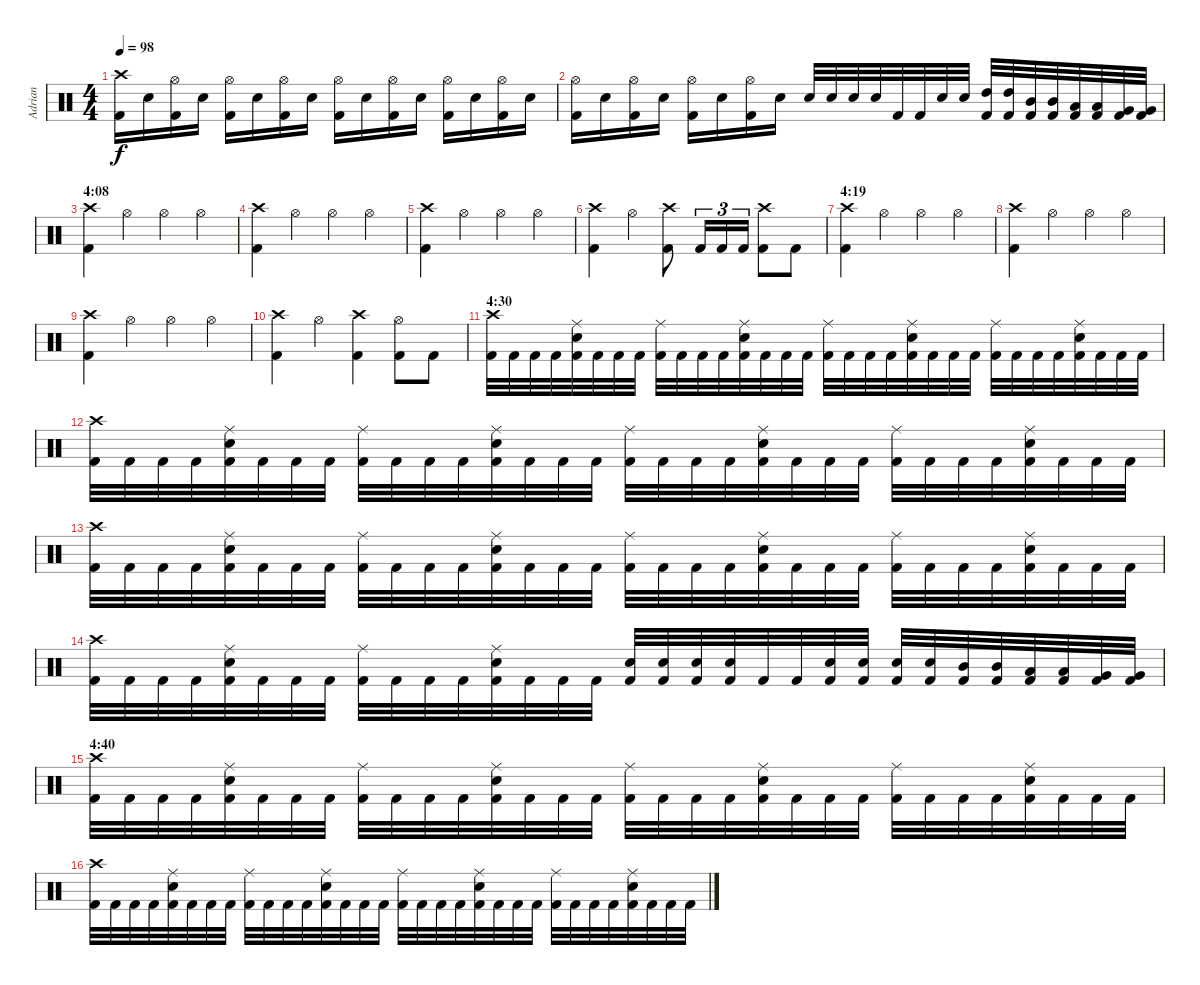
\track ("Adrian" "Adrian") {instrument percussion}
\staff {score}
\articulation defaults
\ts (4 4)
\tempo 98
\clef neutral
\ks c
("Kick (hit) 2" "Crash high (hit)").16{dy f} "Snare (hit) 2".16 ("Kick (hit) 2" "Hi-Hat (open)").16 "Snare (hit) 2".16 ("Kick (hit) 2" "Hi-Hat (open)").16 "Snare (hit) 2".16 ("Kick (hit) 2" "Hi-Hat (open)").16 "Snare (hit) 2".16 ("Kick (hit) 2" "Hi-Hat (open)").16 "Snare (hit) 2".16 ("Kick (hit) 2" "Hi-Hat (open)").16 "Snare (hit) 2".16 ("Kick (hit) 2" "Hi-Hat (open)").16 "Snare (hit) 2".16 ("Kick (hit) 2" "Hi-Hat (open)").16 "Snare (hit) 2".16 |
("Kick (hit) 2" "Hi-Hat (open)").16 "Snare (hit) 2".16 ("Kick (hit) 2" "Hi-Hat (open)").16 "Snare (hit) 2".16 ("Kick (hit) 2" "Hi-Hat (open)").16 "Snare (hit) 2".16 ("Kick (hit) 2" "Hi-Hat (open)").16 "Snare (hit) 2".16 "Snare (hit) 2".32 "Snare (hit) 2".32 "Snare (hit) 2".32 "Snare (hit) 2".32 "Kick (hit) 2".32 "Kick (hit) 2".32 "Snare (hit) 2".32 "Snare (hit) 2".32 ("Kick (hit) 2" "High Tom (hit)").32 ("Kick (hit) 2" "High Tom (hit)").32 ("Kick (hit) 2" "Mid Tom (hit)").32 ("Kick (hit) 2" "Mid Tom (hit)").32 ("Kick (hit) 2" "Low Tom (hit)").32 ("Kick (hit) 2" "Low Tom (hit)").32 ("Kick (hit) 2" "Very Low Tom (hit)").32 ("Kick (hit) 2" "Very Low Tom (hit)").32 |
\section ("" "4:08")
("Kick (hit) 2" "Crash high (hit)").4 "Hi-Hat (open)".4 "Hi-Hat (open)".4 "Hi-Hat (open)".4 |
("Kick (hit) 2" "Crash high (hit)").4 "Hi-Hat (open)".4 "Hi-Hat (open)".4 "Hi-Hat (open)".4 |
("Kick (hit) 2" "Crash high (hit)").4 "Hi-Hat (open)".4 "Hi-Hat (open)".4 "Hi-Hat (open)".4 |
("Kick (hit) 2" "Crash high (hit)").4 "Hi-Hat (open)".4 ("Kick (hit) 2" "Crash high (hit)").8 "Kick (hit) 2".16{tu (3 2)} "Kick (hit) 2".16{tu (3 2)} "Kick (hit) 2".16{tu (3 2)} ("Kick (hit) 2" "Crash high (hit)").8 "Kick (hit) 2".8 |
\section ("" "4:19")
("Kick (hit) 2" "Crash high (hit)").4 "Hi-Hat (open)".4 "Hi-Hat (open)".4 "Hi-Hat (open)".4 |
("Kick (hit) 2" "Crash high (hit)").4 "Hi-Hat (open)".4 "Hi-Hat (open)".4 "Hi-Hat (open)".4 |
("Kick (hit) 2" "Crash high (hit)").4 "Hi-Hat (open)".4 "Hi-Hat (open)".4 "Hi-Hat (open)".4 |
("Kick (hit) 2" "Crash high (hit)").4 "Hi-Hat (open)".4 ("Kick (hit) 2" "Crash high (hit)").4 ("Kick (hit) 2" "Hi-Hat (open)").8 "Kick (hit) 2".8 |
\section ("" "4:30")
("Kick (hit) 2" "Crash high (hit)").32 "Kick (hit) 2".32 "Kick (hit) 2".32 "Kick (hit) 2".32 ("Kick (hit) 2" "Snare (hit) 2" "Ride (middle)").32 "Kick (hit) 2".32 "Kick (hit) 2".32 "Kick (hit) 2".32 ("Kick (hit) 2" "Ride (middle)").32 "Kick (hit) 2".32 "Kick (hit) 2".32 "Kick (hit) 2".32 ("Kick (hit) 2" "Snare (hit) 2" "Ride (middle)").32 "Kick (hit) 2".32 "Kick (hit) 2".32 "Kick (hit) 2".32 ("Kick (hit) 2" "Ride (middle)").32 "Kick (hit) 2".32 "Kick (hit) 2".32 "Kick (hit) 2".32 ("Kick (hit) 2" "Snare (hit) 2" "Ride (middle)").32 "Kick (hit) 2".32 "Kick (hit) 2".32 "Kick (hit) 2".32 ("Kick (hit) 2" "Ride (middle)").32 "Kick (hit) 2".32 "Kick (hit) 2".32 "Kick (hit) 2".32 ("Kick (hit) 2" "Snare (hit) 2" "Ride (middle)").32 "Kick (hit) 2".32 "Kick (hit) 2".32 "Kick (hit) 2".32 |
("Kick (hit) 2" "Crash high (hit)").32 "Kick (hit) 2".32 "Kick (hit) 2".32 "Kick (hit) 2".32 ("Kick (hit) 2" "Snare (hit) 2" "Ride (middle)").32 "Kick (hit) 2".32 "Kick (hit) 2".32 "Kick (hit) 2".32 ("Kick (hit) 2" "Ride (middle)").32 "Kick (hit) 2".32 "Kick (hit) 2".32 "Kick (hit) 2".32 ("Kick (hit) 2" "Snare (hit) 2" "Ride (middle)").32 "Kick (hit) 2".32 "Kick (hit) 2".32 "Kick (hit) 2".32 ("Kick (hit) 2" "Ride (middle)").32 "Kick (hit) 2".32 "Kick (hit) 2".32 "Kick (hit) 2".32 ("Kick (hit) 2" "Snare (hit) 2" "Ride (middle)").32 "Kick (hit) 2".32 "Kick (hit) 2".32 "Kick (hit) 2".32 ("Kick (hit) 2" "Ride (middle)").32 "Kick (hit) 2".32 "Kick (hit) 2".32 "Kick (hit) 2".32 ("Kick (hit) 2" "Snare (hit) 2" "Ride (middle)").32 "Kick (hit) 2".32 "Kick (hit) 2".32 "Kick (hit) 2".32 |
("Kick (hit) 2" "Crash high (hit)").32 "Kick (hit) 2".32 "Kick (hit) 2".32 "Kick (hit) 2".32 ("Kick (hit) 2" "Snare (hit) 2" "Ride (middle)").32 "Kick (hit) 2".32 "Kick (hit) 2".32 "Kick (hit) 2".32 ("Kick (hit) 2" "Ride (middle)").32 "Kick (hit) 2".32 "Kick (hit) 2".32 "Kick (hit) 2".32 ("Kick (hit) 2" "Snare (hit) 2" "Ride (middle)").32 "Kick (hit) 2".32 "Kick (hit) 2".32 "Kick (hit) 2".32 ("Kick (hit) 2" "Ride (middle)").32 "Kick (hit) 2".32 "Kick (hit) 2".32 "Kick (hit) 2".32 ("Kick (hit) 2" "Snare (hit) 2" "Ride (middle)").32 "Kick (hit) 2".32 "Kick (hit) 2".32 "Kick (hit) 2".32 ("Kick (hit) 2" "Ride (middle)").32 "Kick (hit) 2".32 "Kick (hit) 2".32 "Kick (hit) 2".32 ("Kick (hit) 2" "Snare (hit) 2" "Ride (middle)").32 "Kick (hit) 2".32 "Kick (hit) 2".32 "Kick (hit) 2".32 |
("Kick (hit) 2" "Crash high (hit)").32 "Kick (hit) 2".32 "Kick (hit) 2".32 "Kick (hit) 2".32 ("Kick (hit) 2" "Snare (hit) 2" "Ride (middle)").32 "Kick (hit) 2".32 "Kick (hit) 2".32 "Kick (hit) 2".32 ("Kick (hit) 2" "Ride (middle)").32 "Kick (hit) 2".32 "Kick (hit) 2".32 "Kick (hit) 2".32 ("Kick (hit) 2" "Snare (hit) 2" "Ride (middle)").32 "Kick (hit) 2".32 "Kick (hit) 2".32 "Kick (hit) 2".32 ("Kick (hit) 2" "Snare (hit) 2").32 ("Kick (hit) 2" "Snare (hit) 2").32 ("Kick (hit) 2" "Snare (hit) 2").32 ("Kick (hit) 2" "Snare (hit) 2").32 "Kick (hit) 2".32 "Kick (hit) 2".32 ("Kick (hit) 2" "Snare (hit) 2").32 ("Kick (hit) 2" "Snare (hit) 2").32 ("Kick (hit) 2" "Snare (hit) 2").32 ("Kick (hit) 2" "Snare (hit) 2").32 ("Kick (hit) 2" "Mid Tom (hit)").32 ("Kick (hit) 2" "Mid Tom (hit)").32 ("Kick (hit) 2" "Low Tom (hit)").32 ("Kick (hit) 2" "Low Tom (hit)").32 ("Kick (hit) 2" "Very Low Tom (hit)").32 ("Kick (hit) 2" "Very Low Tom (hit)").32 |
\section ("" "4:40")
("Kick (hit) 2" "Crash high (hit)").32 "Kick (hit) 2".32 "Kick (hit) 2".32 "Kick (hit) 2".32 ("Kick (hit) 2" "Snare (hit) 2" "Ride (middle)").32 "Kick (hit) 2".32 "Kick (hit) 2".32 "Kick (hit) 2".32 ("Kick (hit) 2" "Ride (middle)").32 "Kick (hit) 2".32 "Kick (hit) 2".32 "Kick (hit) 2".32 ("Kick (hit) 2" "Snare (hit) 2" "Ride (middle)").32 "Kick (hit) 2".32 "Kick (hit) 2".32 "Kick (hit) 2".32 ("Kick (hit) 2" "Ride (middle)").32 "Kick (hit) 2".32 "Kick (hit) 2".32 "Kick (hit) 2".32 ("Kick (hit) 2" "Snare (hit) 2" "Ride (middle)").32 "Kick (hit) 2".32 "Kick (hit) 2".32 "Kick (hit) 2".32 ("Kick (hit) 2" "Ride (middle)").32 "Kick (hit) 2".32 "Kick (hit) 2".32 "Kick (hit) 2".32 ("Kick (hit) 2" "Snare (hit) 2" "Ride (middle)").32 "Kick (hit) 2".32 "Kick (hit) 2".32 "Kick (hit) 2".32 |
("Kick (hit) 2" "Crash high (hit)").32 "Kick (hit) 2".32 "Kick (hit) 2".32 "Kick (hit) 2".32 ("Kick (hit) 2" "Snare (hit) 2" "Ride (middle)").32 "Kick (hit) 2".32 "Kick (hit) 2".32 "Kick (hit) 2".32 ("Kick (hit) 2" "Ride (middle)").32 "Kick (hit) 2".32 "Kick (hit) 2".32 "Kick (hit) 2".32 ("Kick (hit) 2" "Snare (hit) 2" "Ride (middle)").32 "Kick (hit) 2".32 "Kick (hit) 2".32 "Kick (hit) 2".32 ("Kick (hit) 2" "Ride (middle)").32 "Kick (hit) 2".32 "Kick (hit) 2".32 "Kick (hit) 2".32 ("Kick (hit) 2" "Snare (hit) 2" "Ride (middle)").32 "Kick (hit) 2".32 "Kick (hit) 2".32 "Kick (hit) 2".32 ("Kick (hit) 2" "Ride (middle)").32 "Kick (hit) 2".32 "Kick (hit) 2".32 "Kick (hit) 2".32 ("Kick (hit) 2" "Snare (hit) 2" "Ride (middle)").32 "Kick (hit) 2".32 "Kick (hit) 2".32 "Kick (hit) 2".32
